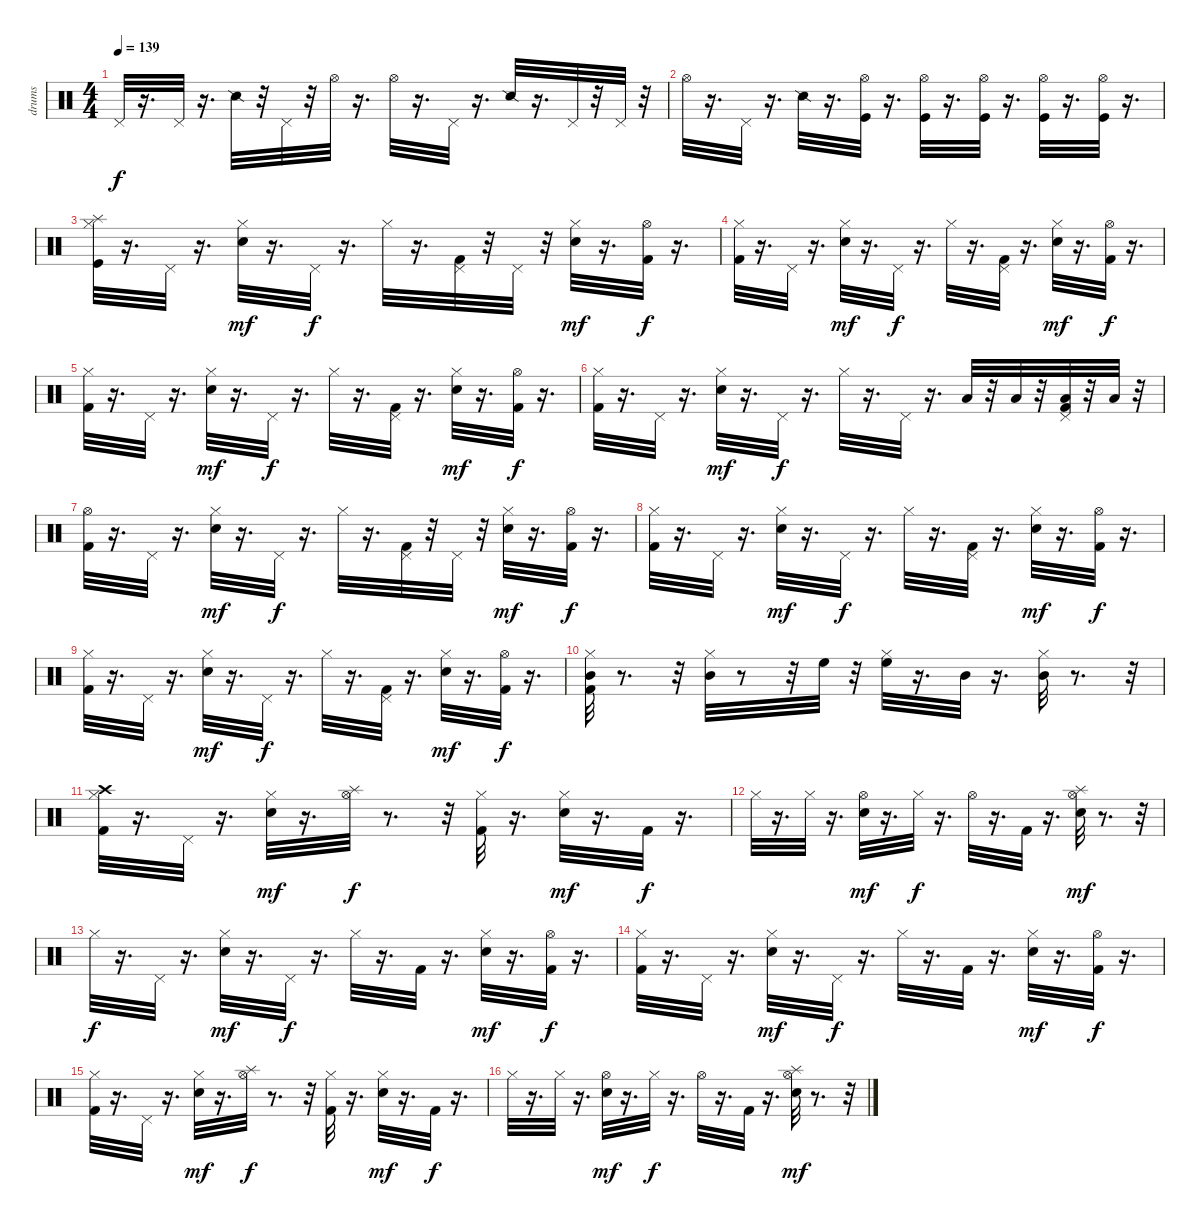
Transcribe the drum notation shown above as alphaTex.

\track ("drums" "drums") {instrument percussion}
\staff {score}
\articulation defaults
\ts (4 4)
\tempo 139
\clef neutral
\ks c "Pedal Hi-Hat (hit)".32{dy f}
r.16{d} "Pedal Hi-Hat (hit)".32 r.16{d} "Snare (side stick) 2".32 r.32 "Pedal Hi-Hat (hit)".32 r.32 "Hi-Hat (open)".32 r.16{d} "Hi-Hat (open)".32 r.16{d} "Pedal Hi-Hat (hit)".32 r.16{d} "Snare (side stick) 2".32 r.16{d} "Pedal Hi-Hat (hit)".32 r.32 "Pedal Hi-Hat (hit)".32 r.32 |
"Hi-Hat (open)".32 r.16{d} "Pedal Hi-Hat (hit)".32 r.16{d} "Snare (side stick) 2".32 r.16{d} ("Kick (hit)" "Hi-Hat (open)").32 r.16{d} ("Kick (hit)" "Hi-Hat (open)").32 r.16{d} ("Hi-Hat (open)" "Kick (hit)").32 r.16{d} ("Hi-Hat (open)" "Kick (hit)").32 r.16{d} ("Hi-Hat (open)" "Kick (hit)").32 r.16{d} |
("Splash (hit)" "Kick (hit)" "Hi-Hat (closed)").32 r.16{d} "Pedal Hi-Hat (hit)".32 r.16{d} ("Snare (hit) 2" "Hi-Hat (closed)").32{dy mf} r.16{d} "Pedal Hi-Hat (hit)".32{dy f} r.16{d} "Hi-Hat (closed)".32 r.16{d} ("Kick (hit) 2" "Pedal Hi-Hat (hit)").32 r.32 "Pedal Hi-Hat (hit)".32 r.32 ("Hi-Hat (closed)" "Snare (hit) 2").32{dy mf} r.16{d} ("Kick (hit) 2" "Hi-Hat (open)").32{dy f} r.16{d} |
("Hi-Hat (closed)" "Kick (hit) 2").32 r.16{d} "Pedal Hi-Hat (hit)".32 r.16{d} ("Snare (hit) 2" "Hi-Hat (closed)").32{dy mf} r.16{d} "Pedal Hi-Hat (hit)".32{dy f} r.16{d} "Hi-Hat (closed)".32 r.16{d} ("Pedal Hi-Hat (hit)" "Kick (hit) 2").32 r.16{d} ("Snare (hit) 2" "Hi-Hat (closed)").32{dy mf} r.16{d} ("Hi-Hat (open)" "Kick (hit) 2").32{dy f} r.16{d} |
("Kick (hit) 2" "Hi-Hat (closed)").32 r.16{d} "Pedal Hi-Hat (hit)".32 r.16{d} ("Snare (hit) 2" "Hi-Hat (closed)").32{dy mf} r.16{d} "Pedal Hi-Hat (hit)".32{dy f} r.16{d} "Hi-Hat (closed)".32 r.16{d} ("Kick (hit) 2" "Pedal Hi-Hat (hit)").32 r.16{d} ("Hi-Hat (closed)" "Snare (hit) 2").32{dy mf} r.16{d} ("Hi-Hat (open)" "Kick (hit) 2").32{dy f} r.16{d} |
("Kick (hit) 2" "Hi-Hat (closed)").32 r.16{d} "Pedal Hi-Hat (hit)".32 r.16{d} ("Hi-Hat (closed)" "Snare (hit) 2").32{dy mf} r.16{d} "Pedal Hi-Hat (hit)".32{dy f} r.16{d} "Hi-Hat (closed)".32 r.16{d} "Pedal Hi-Hat (hit)".32 r.16{d} "Low Tom (hit)".32 r.32 "Low Tom (hit)".32 r.32 ("Pedal Hi-Hat (hit)" "Kick (hit) 2" "Low Tom (hit)").32 r.32 "Low Tom (hit)".32 r.32 |
("Hi-Hat (open)" "Kick (hit) 2").32 r.16{d} "Pedal Hi-Hat (hit)".32 r.16{d} ("Snare (hit) 2" "Hi-Hat (closed)").32{dy mf} r.16{d} "Pedal Hi-Hat (hit)".32{dy f} r.16{d} "Hi-Hat (closed)".32 r.16{d} ("Pedal Hi-Hat (hit)" "Kick (hit) 2").32 r.32 "Pedal Hi-Hat (hit)".32 r.32 ("Hi-Hat (closed)" "Snare (hit) 2").32{dy mf} r.16{d} ("Kick (hit) 2" "Hi-Hat (open)").32{dy f} r.16{d} |
("Hi-Hat (closed)" "Kick (hit) 2").32 r.16{d} "Pedal Hi-Hat (hit)".32 r.16{d} ("Snare (hit) 2" "Hi-Hat (closed)").32{dy mf} r.16{d} "Pedal Hi-Hat (hit)".32{dy f} r.16{d} "Hi-Hat (closed)".32 r.16{d} ("Kick (hit) 2" "Pedal Hi-Hat (hit)").32 r.16{d} ("Hi-Hat (closed)" "Snare (hit) 2").32{dy mf} r.16{d} ("Hi-Hat (open)" "Kick (hit) 2").32{dy f} r.16{d} |
("Kick (hit) 2" "Hi-Hat (closed)").32 r.16{d} "Pedal Hi-Hat (hit)".32 r.16{d} ("Hi-Hat (closed)" "Snare (hit) 2").32{dy mf} r.16{d} "Pedal Hi-Hat (hit)".32{dy f} r.16{d} "Hi-Hat (closed)".32 r.16{d} ("Pedal Hi-Hat (hit)" "Kick (hit) 2").32 r.16{d} ("Hi-Hat (closed)" "Snare (hit) 2").32{dy mf} r.16{d} ("Hi-Hat (open)" "Kick (hit) 2").32{dy f} r.16{d} |
("Mid Tom (hit)" "Hi-Hat (closed)" "Kick (hit) 2").32 r.8{d} r.32 ("Mid Tom (hit)" "Hi-Hat (closed)").32 r.8 r.32 "High Floor Tom (hit)".32 r.32 ("High Floor Tom (hit)" "Hi-Hat (closed)").32 r.16{d} "Mid Tom (hit)".32 r.16{d} ("Mid Tom (hit)" "Hi-Hat (closed)").32 r.8{d} r.32 |
("Crash high (hit)" "Hi-Hat (closed)" "Kick (hit) 2").32 r.16{d} "Pedal Hi-Hat (hit)".32 r.16{d} ("Snare (hit) 2" "Hi-Hat (closed)").32{dy mf} r.16{d} ("Splash (hit)" "Hi-Hat (open)").32{dy f} r.8{d} r.32 ("Kick (hit) 2" "Hi-Hat (closed)").32 r.16{d} ("Hi-Hat (closed)" "Snare (hit) 2").32{dy mf} r.16{d} "Kick (hit) 2".32{dy f} r.16{d} |
"Hi-Hat (closed)".32 r.16{d} "Hi-Hat (closed)".32 r.16{d} ("Hi-Hat (open)" "Snare (hit) 2").32{dy mf} r.16{d} "Hi-Hat (closed)".32{dy f} r.16{d} "Hi-Hat (open)".32 r.16{d} "Kick (hit) 2".32 r.16{d} ("Hi-Hat (open)" "Splash (hit)" "Snare (hit) 2").32{dy mf} r.8{d} r.32 |
"Hi-Hat (closed)".32{dy f} r.16{d} "Pedal Hi-Hat (hit)".32 r.16{d} ("Snare (hit) 2" "Hi-Hat (closed)").32{dy mf} r.16{d} "Pedal Hi-Hat (hit)".32{dy f} r.16{d} "Hi-Hat (closed)".32 r.16{d} "Kick (hit) 2".32 r.16{d} ("Hi-Hat (closed)" "Snare (hit) 2").32{dy mf} r.16{d} ("Kick (hit) 2" "Hi-Hat (open)").32{dy f} r.16{d} |
("Kick (hit) 2" "Hi-Hat (closed)").32 r.16{d} "Pedal Hi-Hat (hit)".32 r.16{d} ("Snare (hit) 2" "Hi-Hat (closed)").32{dy mf} r.16{d} "Pedal Hi-Hat (hit)".32{dy f} r.16{d} "Hi-Hat (closed)".32 r.16{d} "Kick (hit) 2".32 r.16{d} ("Snare (hit) 2" "Hi-Hat (closed)").32{dy mf} r.16{d} ("Kick (hit) 2" "Hi-Hat (open)").32{dy f} r.16{d} |
("Kick (hit) 2" "Hi-Hat (closed)").32 r.16{d} "Pedal Hi-Hat (hit)".32 r.16{d} ("Hi-Hat (closed)" "Snare (hit) 2").32{dy mf} r.16{d} ("Hi-Hat (open)" "Splash (hit)").32{dy f} r.8{d} r.32 ("Kick (hit) 2" "Hi-Hat (closed)").32 r.16{d} ("Hi-Hat (closed)" "Snare (hit) 2").32{dy mf} r.16{d} "Kick (hit) 2".32{dy f} r.16{d} |
"Hi-Hat (closed)".32 r.16{d} "Hi-Hat (closed)".32 r.16{d} ("Hi-Hat (open)" "Snare (hit) 2").32{dy mf} r.16{d} "Hi-Hat (closed)".32{dy f} r.16{d} "Hi-Hat (open)".32 r.16{d} "Kick (hit) 2".32 r.16{d} ("Hi-Hat (open)" "Snare (hit) 2" "Splash (hit)").32{dy mf} r.8{d} r.32
